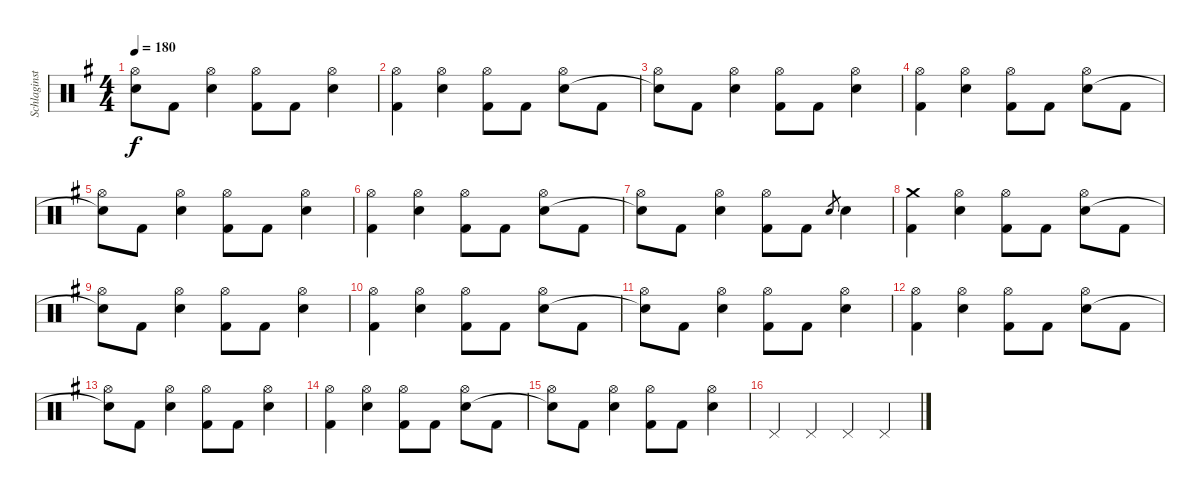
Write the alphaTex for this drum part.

\track ("Schlaginstrumente - Auswahl" "Schlaginst") {instrument percussion}
\staff {score}
\articulation defaults
\ts (4 4)
\tempo 180
\clef neutral
\ks g
("Hi-Hat (open)" "Snare (hit)"{t}).8{dy f} "Kick (hit) 2".8 ("Hi-Hat (open)" "Electric Snare (hit)").4 ("Hi-Hat (open)" "Kick (hit) 2").8 "Kick (hit) 2".8 ("Hi-Hat (open)" "Electric Snare (hit)").4 |
("Hi-Hat (open)" "Kick (hit) 2").4 ("Hi-Hat (open)" "Electric Snare (hit)").4 ("Hi-Hat (open)" "Kick (hit) 2").8 "Kick (hit) 2".8 ("Hi-Hat (open)" "Electric Snare (hit)").8 "Kick (hit) 2".8 |
("Hi-Hat (open)" "Snare (hit)"{t}).8 "Kick (hit) 2".8 ("Hi-Hat (open)" "Electric Snare (hit)").4 ("Hi-Hat (open)" "Kick (hit) 2").8 "Kick (hit) 2".8 ("Hi-Hat (open)" "Electric Snare (hit)").4 |
("Hi-Hat (open)" "Kick (hit) 2").4 ("Hi-Hat (open)" "Electric Snare (hit)").4 ("Hi-Hat (open)" "Kick (hit) 2").8 "Kick (hit) 2".8 ("Hi-Hat (open)" "Electric Snare (hit)").8 "Kick (hit) 2".8 |
("Hi-Hat (open)" "Snare (hit)"{t}).8 "Kick (hit) 2".8 ("Hi-Hat (open)" "Electric Snare (hit)").4 ("Hi-Hat (open)" "Kick (hit) 2").8 "Kick (hit) 2".8 ("Hi-Hat (open)" "Electric Snare (hit)").4 |
("Hi-Hat (open)" "Kick (hit) 2").4 ("Hi-Hat (open)" "Electric Snare (hit)").4 ("Hi-Hat (open)" "Kick (hit) 2").8 "Kick (hit) 2".8 ("Hi-Hat (open)" "Electric Snare (hit)").8 "Kick (hit) 2".8 |
("Hi-Hat (open)" "Snare (hit)"{t}).8 "Kick (hit) 2".8 ("Hi-Hat (open)" "Electric Snare (hit)").4 ("Hi-Hat (open)" "Kick (hit) 2").8 "Kick (hit) 2".8 "Electric Snare (hit)".8{gr} "Electric Snare (hit)".4 |
("Crash medium (hit)" "Kick (hit) 2").4 ("Hi-Hat (open)" "Electric Snare (hit)").4 ("Hi-Hat (open)" "Kick (hit) 2").8 "Kick (hit) 2".8 ("Hi-Hat (open)" "Electric Snare (hit)").8 "Kick (hit) 2".8 |
("Hi-Hat (open)" "Snare (hit)"{t}).8 "Kick (hit) 2".8 ("Hi-Hat (open)" "Electric Snare (hit)").4 ("Hi-Hat (open)" "Kick (hit) 2").8 "Kick (hit) 2".8 ("Hi-Hat (open)" "Electric Snare (hit)").4 |
("Hi-Hat (open)" "Kick (hit) 2").4 ("Hi-Hat (open)" "Electric Snare (hit)").4 ("Hi-Hat (open)" "Kick (hit) 2").8 "Kick (hit) 2".8 ("Hi-Hat (open)" "Electric Snare (hit)").8 "Kick (hit) 2".8 |
("Hi-Hat (open)" "Snare (hit)"{t}).8 "Kick (hit) 2".8 ("Hi-Hat (open)" "Electric Snare (hit)").4 ("Hi-Hat (open)" "Kick (hit) 2").8 "Kick (hit) 2".8 ("Hi-Hat (open)" "Electric Snare (hit)").4 |
("Hi-Hat (open)" "Kick (hit) 2").4 ("Hi-Hat (open)" "Electric Snare (hit)").4 ("Hi-Hat (open)" "Kick (hit) 2").8 "Kick (hit) 2".8 ("Hi-Hat (open)" "Electric Snare (hit)").8 "Kick (hit) 2".8 |
("Hi-Hat (open)" "Snare (hit)"{t}).8 "Kick (hit) 2".8 ("Hi-Hat (open)" "Electric Snare (hit)").4 ("Hi-Hat (open)" "Kick (hit) 2").8 "Kick (hit) 2".8 ("Hi-Hat (open)" "Electric Snare (hit)").4 |
("Hi-Hat (open)" "Kick (hit) 2").4 ("Hi-Hat (open)" "Electric Snare (hit)").4 ("Hi-Hat (open)" "Kick (hit) 2").8 "Kick (hit) 2".8 ("Hi-Hat (open)" "Electric Snare (hit)").8 "Kick (hit) 2".8 |
("Hi-Hat (open)" "Snare (hit)"{t}).8 "Kick (hit) 2".8 ("Hi-Hat (open)" "Electric Snare (hit)").4 ("Hi-Hat (open)" "Kick (hit) 2").8 "Kick (hit) 2".8 ("Hi-Hat (open)" "Electric Snare (hit)").4 |
"Pedal Hi-Hat (hit)".4 "Pedal Hi-Hat (hit)".4 "Pedal Hi-Hat (hit)".4 "Pedal Hi-Hat (hit)".4
